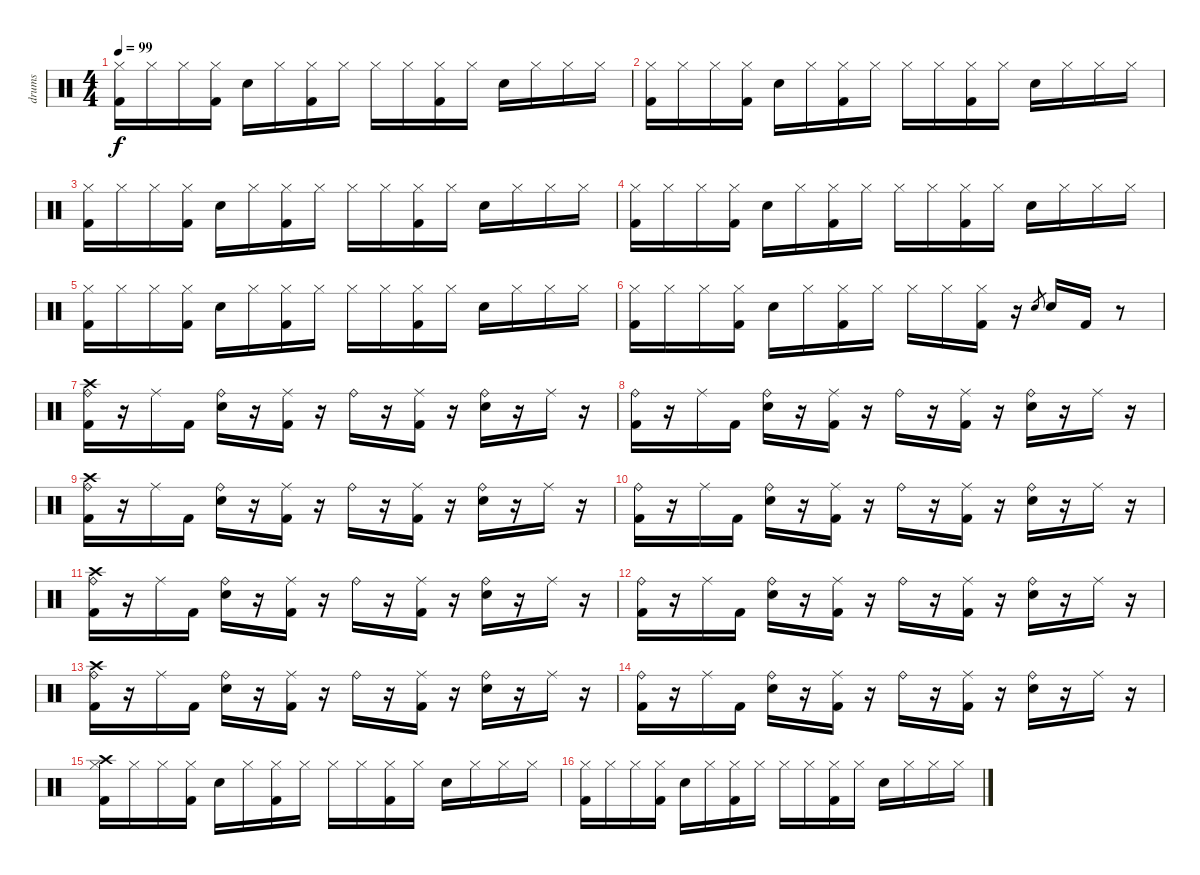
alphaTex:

\track ("drums" "drums") {instrument percussion}
\staff {score}
\articulation defaults
\ts (4 4)
\tempo 99
\clef neutral
\ks c
("Hi-Hat (closed)" "Kick (hit) 2").16{dy f} "Hi-Hat (closed)".16 "Hi-Hat (closed)".16 ("Hi-Hat (closed)" "Kick (hit) 2").16 "Snare (hit) 2".16 "Hi-Hat (closed)".16 ("Hi-Hat (closed)" "Kick (hit) 2").16 "Hi-Hat (closed)".16 "Hi-Hat (closed)"{nh}.16 "Hi-Hat (closed)".16 ("Hi-Hat (closed)" "Kick (hit) 2").16 "Hi-Hat (closed)".16 "Snare (hit) 2".16 "Hi-Hat (closed)".16 "Hi-Hat (closed)".16 "Hi-Hat (closed)".16 |
("Hi-Hat (closed)" "Kick (hit) 2").16 "Hi-Hat (closed)".16 "Hi-Hat (closed)".16 ("Hi-Hat (closed)" "Kick (hit) 2").16 "Snare (hit) 2".16 "Hi-Hat (closed)".16 ("Hi-Hat (closed)" "Kick (hit) 2").16 "Hi-Hat (closed)".16 "Hi-Hat (closed)"{nh}.16 "Hi-Hat (closed)".16 ("Hi-Hat (closed)" "Kick (hit) 2").16 "Hi-Hat (closed)".16 "Snare (hit) 2".16 "Hi-Hat (closed)".16 "Hi-Hat (closed)".16 "Hi-Hat (closed)".16 |
("Hi-Hat (closed)" "Kick (hit) 2").16 "Hi-Hat (closed)".16 "Hi-Hat (closed)".16 ("Hi-Hat (closed)" "Kick (hit) 2").16 "Snare (hit) 2".16 "Hi-Hat (closed)".16 ("Hi-Hat (closed)" "Kick (hit) 2").16 "Hi-Hat (closed)".16 "Hi-Hat (closed)"{nh}.16 "Hi-Hat (closed)".16 ("Hi-Hat (closed)" "Kick (hit) 2").16 "Hi-Hat (closed)".16 "Snare (hit) 2".16 "Hi-Hat (closed)".16 "Hi-Hat (closed)".16 "Hi-Hat (closed)".16 |
("Hi-Hat (closed)" "Kick (hit) 2").16 "Hi-Hat (closed)".16 "Hi-Hat (closed)".16 ("Hi-Hat (closed)" "Kick (hit) 2").16 "Snare (hit) 2".16 "Hi-Hat (closed)".16 ("Hi-Hat (closed)" "Kick (hit) 2").16 "Hi-Hat (closed)".16 "Hi-Hat (closed)"{nh}.16 "Hi-Hat (closed)".16 ("Hi-Hat (closed)" "Kick (hit) 2").16 "Hi-Hat (closed)".16 "Snare (hit) 2".16 "Hi-Hat (closed)".16 "Hi-Hat (closed)".16 "Hi-Hat (closed)".16 |
("Hi-Hat (closed)" "Kick (hit) 2").16 "Hi-Hat (closed)".16 "Hi-Hat (closed)".16 ("Hi-Hat (closed)" "Kick (hit) 2").16 "Snare (hit) 2".16 "Hi-Hat (closed)".16 ("Hi-Hat (closed)" "Kick (hit) 2").16 "Hi-Hat (closed)".16 "Hi-Hat (closed)"{nh}.16 "Hi-Hat (closed)".16 ("Hi-Hat (closed)" "Kick (hit) 2").16 "Hi-Hat (closed)".16 "Snare (hit) 2".16 "Hi-Hat (closed)".16 "Hi-Hat (closed)".16 "Hi-Hat (closed)".16 |
("Hi-Hat (closed)" "Kick (hit) 2").16 "Hi-Hat (closed)".16 "Hi-Hat (closed)".16 ("Hi-Hat (closed)" "Kick (hit) 2").16 "Snare (hit) 2".16 "Hi-Hat (closed)".16 ("Hi-Hat (closed)" "Kick (hit) 2").16 "Hi-Hat (closed)".16 "Hi-Hat (closed)"{nh}.16 "Hi-Hat (closed)".16 ("Hi-Hat (closed)" "Kick (hit) 2").16 r.16 "Snare (hit) 2".8{gr} "Snare (hit) 2".16 "Kick (hit) 2".16 r.8 |
("Crash high (hit)" "Ride (bell)" "Kick (hit) 2").16 r.16 "Ride (middle)".16 "Kick (hit) 2".16 ("Ride (bell)" "Snare (hit) 2").16 r.16 ("Ride (middle)" "Kick (hit) 2").16 r.16 "Ride (bell)"{nh}.16 r.16 ("Ride (middle)" "Kick (hit) 2").16 r.16 ("Ride (bell)" "Snare (hit) 2").16 r.16 "Ride (middle)".16 r.16 |
("Ride (bell)" "Kick (hit) 2").16 r.16 "Ride (middle)".16 "Kick (hit) 2".16 ("Ride (bell)" "Snare (hit) 2").16 r.16 ("Ride (middle)" "Kick (hit) 2").16 r.16 "Ride (bell)"{nh}.16 r.16 ("Ride (middle)" "Kick (hit) 2").16 r.16 ("Ride (bell)" "Snare (hit) 2").16 r.16 "Ride (middle)".16 r.16 |
("Crash high (hit)" "Ride (bell)" "Kick (hit) 2").16 r.16 "Ride (middle)".16 "Kick (hit) 2".16 ("Ride (bell)" "Snare (hit) 2").16 r.16 ("Ride (middle)" "Kick (hit) 2").16 r.16 "Ride (bell)"{nh}.16 r.16 ("Ride (middle)" "Kick (hit) 2").16 r.16 ("Ride (bell)" "Snare (hit) 2").16 r.16 "Ride (middle)".16 r.16 |
("Ride (bell)" "Kick (hit) 2").16 r.16 "Ride (middle)".16 "Kick (hit) 2".16 ("Ride (bell)" "Snare (hit) 2").16 r.16 ("Ride (middle)" "Kick (hit) 2").16 r.16 "Ride (bell)"{nh}.16 r.16 ("Ride (middle)" "Kick (hit) 2").16 r.16 ("Ride (bell)" "Snare (hit) 2").16 r.16 "Ride (middle)".16 r.16 |
("Crash high (hit)" "Ride (bell)" "Kick (hit) 2").16 r.16 "Ride (middle)".16 "Kick (hit) 2".16 ("Ride (bell)" "Snare (hit) 2").16 r.16 ("Ride (middle)" "Kick (hit) 2").16 r.16 "Ride (bell)"{nh}.16 r.16 ("Ride (middle)" "Kick (hit) 2").16 r.16 ("Ride (bell)" "Snare (hit) 2").16 r.16 "Ride (middle)".16 r.16 |
("Ride (bell)" "Kick (hit) 2").16 r.16 "Ride (middle)".16 "Kick (hit) 2".16 ("Ride (bell)" "Snare (hit) 2").16 r.16 ("Ride (middle)" "Kick (hit) 2").16 r.16 "Ride (bell)"{nh}.16 r.16 ("Ride (middle)" "Kick (hit) 2").16 r.16 ("Ride (bell)" "Snare (hit) 2").16 r.16 "Ride (middle)".16 r.16 |
("Crash high (hit)" "Ride (bell)" "Kick (hit) 2").16 r.16 "Ride (middle)".16 "Kick (hit) 2".16 ("Ride (bell)" "Snare (hit) 2").16 r.16 ("Ride (middle)" "Kick (hit) 2").16 r.16 "Ride (bell)"{nh}.16 r.16 ("Ride (middle)" "Kick (hit) 2").16 r.16 ("Ride (bell)" "Snare (hit) 2").16 r.16 "Ride (middle)".16 r.16 |
("Ride (bell)" "Kick (hit) 2").16 r.16 "Ride (middle)".16 "Kick (hit) 2".16 ("Ride (bell)" "Snare (hit) 2").16 r.16 ("Ride (middle)" "Kick (hit) 2").16 r.16 "Ride (bell)"{nh}.16 r.16 ("Ride (middle)" "Kick (hit) 2").16 r.16 ("Ride (bell)" "Snare (hit) 2").16 r.16 "Ride (middle)".16 r.16 |
("Crash high (hit)" "Hi-Hat (closed)" "Kick (hit) 2").16 "Hi-Hat (closed)".16 "Hi-Hat (closed)".16 ("Hi-Hat (closed)" "Kick (hit) 2").16 "Snare (hit) 2".16 "Hi-Hat (closed)".16 ("Hi-Hat (closed)" "Kick (hit) 2").16 "Hi-Hat (closed)".16 "Hi-Hat (closed)"{nh}.16 "Hi-Hat (closed)".16 ("Hi-Hat (closed)" "Kick (hit) 2").16 "Hi-Hat (closed)".16 "Snare (hit) 2".16 "Hi-Hat (closed)".16 "Hi-Hat (closed)".16 "Hi-Hat (closed)".16 |
("Hi-Hat (closed)" "Kick (hit) 2").16 "Hi-Hat (closed)".16 "Hi-Hat (closed)".16 ("Hi-Hat (closed)" "Kick (hit) 2").16 "Snare (hit) 2".16 "Hi-Hat (closed)".16 ("Hi-Hat (closed)" "Kick (hit) 2").16 "Hi-Hat (closed)".16 "Hi-Hat (closed)"{nh}.16 "Hi-Hat (closed)".16 ("Hi-Hat (closed)" "Kick (hit) 2").16 "Hi-Hat (closed)".16 "Snare (hit) 2".16 "Hi-Hat (closed)".16 "Hi-Hat (closed)".16 "Hi-Hat (closed)".16
